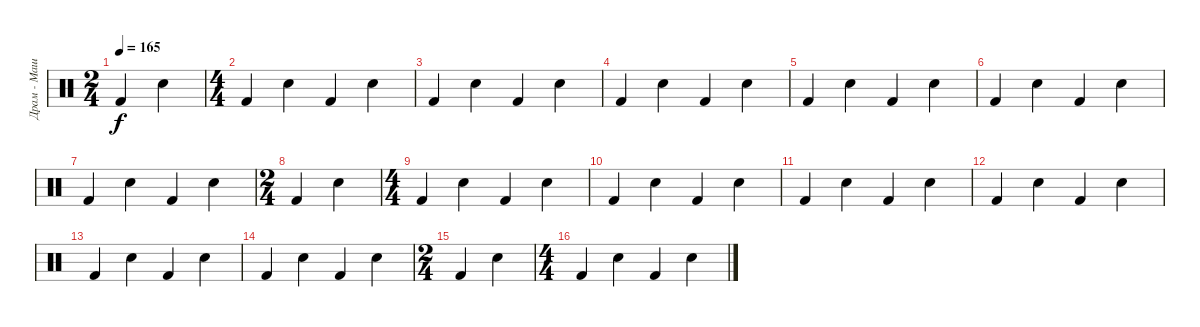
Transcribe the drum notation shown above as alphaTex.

\track ("Драм - Машина" "Драм - Маш") {instrument percussion}
\staff {score}
\articulation defaults
\ts (2 4)
\tempo 165
\clef neutral
\ks c "Kick (hit) 2".4{dy f} "Snare (hit) 2".4
|
\ts (4 4)
"Kick (hit) 2".4 "Snare (hit) 2".4 "Kick (hit) 2".4 "Snare (hit) 2".4 |
"Kick (hit) 2".4 "Snare (hit) 2".4 "Kick (hit) 2".4 "Snare (hit) 2".4 |
"Kick (hit) 2".4 "Snare (hit) 2".4 "Kick (hit) 2".4 "Snare (hit) 2".4 |
"Kick (hit) 2".4 "Snare (hit) 2".4 "Kick (hit) 2".4 "Snare (hit) 2".4 |
"Kick (hit) 2".4 "Snare (hit) 2".4 "Kick (hit) 2".4 "Snare (hit) 2".4 |
"Kick (hit) 2".4 "Snare (hit) 2".4 "Kick (hit) 2".4 "Snare (hit) 2".4 |
\ts (2 4)
"Kick (hit) 2".4 "Snare (hit) 2".4 |
\ts (4 4)
"Kick (hit) 2".4 "Snare (hit) 2".4 "Kick (hit) 2".4 "Snare (hit) 2".4 |
"Kick (hit) 2".4 "Snare (hit) 2".4 "Kick (hit) 2".4 "Snare (hit) 2".4 |
"Kick (hit) 2".4 "Snare (hit) 2".4 "Kick (hit) 2".4 "Snare (hit) 2".4 |
"Kick (hit) 2".4 "Snare (hit) 2".4 "Kick (hit) 2".4 "Snare (hit) 2".4 |
"Kick (hit) 2".4 "Snare (hit) 2".4 "Kick (hit) 2".4 "Snare (hit) 2".4 |
"Kick (hit) 2".4 "Snare (hit) 2".4 "Kick (hit) 2".4 "Snare (hit) 2".4 |
\ts (2 4)
"Kick (hit) 2".4 "Snare (hit) 2".4 |
\ts (4 4)
"Kick (hit) 2".4 "Snare (hit) 2".4 "Kick (hit) 2".4 "Snare (hit) 2".4
